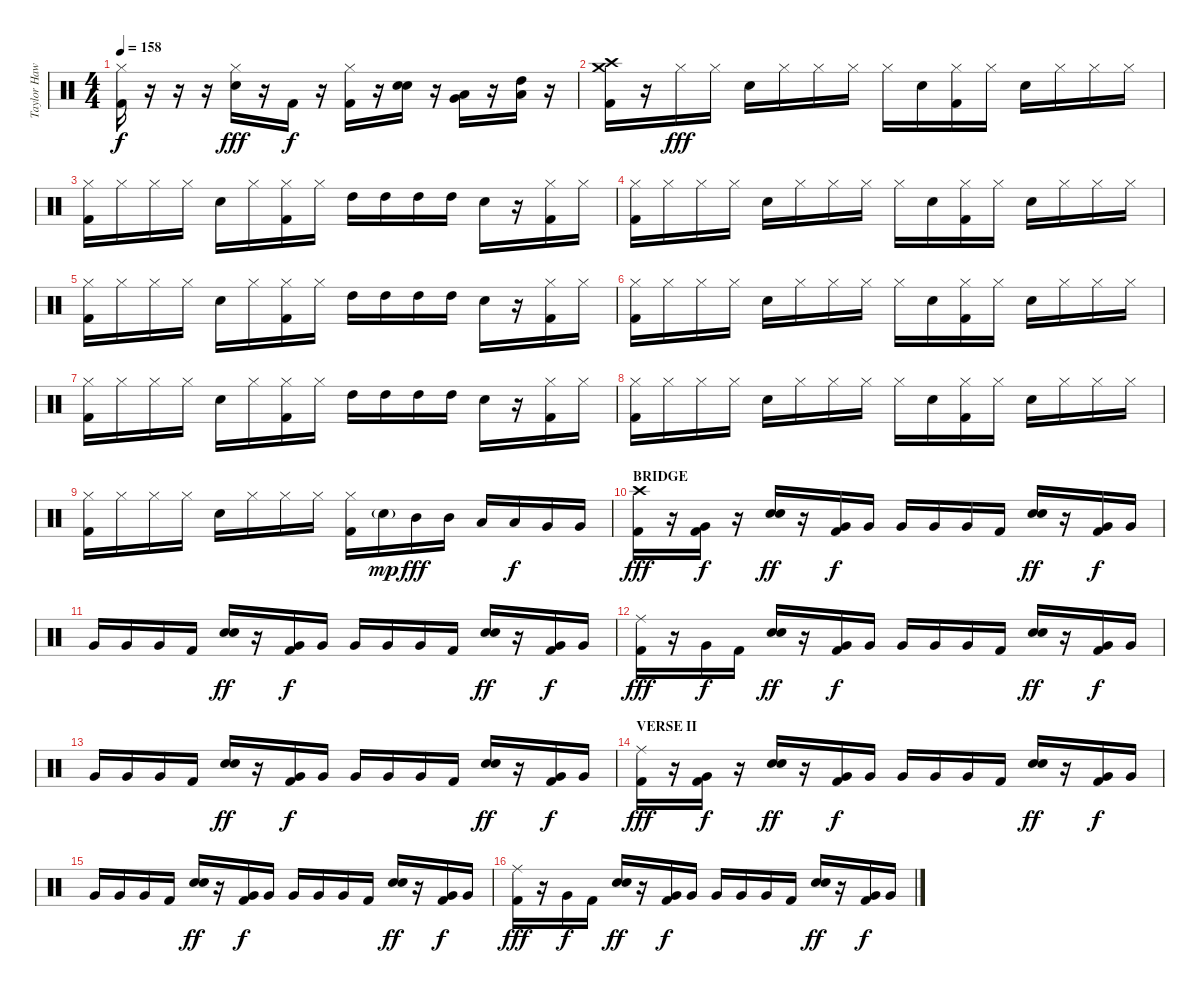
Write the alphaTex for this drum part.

\track ("Taylor Hawkins (Drums)" "Taylor Haw") {instrument percussion}
\staff {score}
\articulation defaults
\ts (4 4)
\tempo 158
\clef neutral
\ks c
("Hi-Hat (closed)" "Kick (hit) 2").16{dy f} r.16 r.16 r.16 ("Hi-Hat (closed)" "Electric Snare (hit)").16{dy fff} r.16 "Kick (hit) 2".16{dy f} r.16 ("Hi-Hat (closed)" "Kick (hit) 2").16 r.16 ("Electric Snare (hit)" "Electric Snare (hit)").16{bu 120} r.16 ("Low Tom (hit)" "Very Low Tom (hit)").16{bu 120} r.16 ("High Tom (hit)" "Low Tom (hit)").16{bu 120} r.16 |
("Crash high (hit)" "Crash medium (hit)" "Kick (hit) 2").16 r.16 "Hi-Hat (closed)".16{dy fff} "Hi-Hat (closed)".16 "Electric Snare (hit)".16 "Hi-Hat (closed)".16 "Hi-Hat (closed)".16 "Hi-Hat (closed)".16 "Hi-Hat (closed)".16 "Electric Snare (hit)".16 ("Hi-Hat (closed)" "Kick (hit) 2").16 "Hi-Hat (closed)".16 "Electric Snare (hit)".16 "Hi-Hat (closed)".16 "Hi-Hat (closed)".16 "Hi-Hat (closed)".16 |
("Hi-Hat (closed)" "Kick (hit) 2").16 "Hi-Hat (closed)".16 "Hi-Hat (closed)".16 "Hi-Hat (closed)".16 "Electric Snare (hit)".16 "Hi-Hat (closed)".16 ("Hi-Hat (closed)" "Kick (hit) 2").16 "Hi-Hat (closed)".16 "High Tom (hit)".16 "High Tom (hit)".16 "High Tom (hit)".16 "High Tom (hit)".16 "Electric Snare (hit)".16 r.16 ("Hi-Hat (closed)" "Kick (hit) 2").16 "Hi-Hat (closed)".16 |
("Hi-Hat (closed)" "Kick (hit) 2").16 "Hi-Hat (closed)".16 "Hi-Hat (closed)".16 "Hi-Hat (closed)".16 "Electric Snare (hit)".16 "Hi-Hat (closed)".16 "Hi-Hat (closed)".16 "Hi-Hat (closed)".16 "Hi-Hat (closed)".16 "Electric Snare (hit)".16 ("Hi-Hat (closed)" "Kick (hit) 2").16 "Hi-Hat (closed)".16 "Electric Snare (hit)".16 "Hi-Hat (closed)".16 "Hi-Hat (closed)".16 "Hi-Hat (closed)".16 |
("Hi-Hat (closed)" "Kick (hit) 2").16 "Hi-Hat (closed)".16 "Hi-Hat (closed)".16 "Hi-Hat (closed)".16 "Electric Snare (hit)".16 "Hi-Hat (closed)".16 ("Hi-Hat (closed)" "Kick (hit) 2").16 "Hi-Hat (closed)".16 "High Tom (hit)".16 "High Tom (hit)".16 "High Tom (hit)".16 "High Tom (hit)".16 "Electric Snare (hit)".16 r.16 ("Hi-Hat (closed)" "Kick (hit) 2").16 "Hi-Hat (closed)".16 |
("Hi-Hat (closed)" "Kick (hit) 2").16 "Hi-Hat (closed)".16 "Hi-Hat (closed)".16 "Hi-Hat (closed)".16 "Electric Snare (hit)".16 "Hi-Hat (closed)".16 "Hi-Hat (closed)".16 "Hi-Hat (closed)".16 "Hi-Hat (closed)".16 "Electric Snare (hit)".16 ("Hi-Hat (closed)" "Kick (hit) 2").16 "Hi-Hat (closed)".16 "Electric Snare (hit)".16 "Hi-Hat (closed)".16 "Hi-Hat (closed)".16 "Hi-Hat (closed)".16 |
("Hi-Hat (closed)" "Kick (hit) 2").16 "Hi-Hat (closed)".16 "Hi-Hat (closed)".16 "Hi-Hat (closed)".16 "Electric Snare (hit)".16 "Hi-Hat (closed)".16 ("Hi-Hat (closed)" "Kick (hit) 2").16 "Hi-Hat (closed)".16 "High Tom (hit)".16 "High Tom (hit)".16 "High Tom (hit)".16 "High Tom (hit)".16 "Electric Snare (hit)".16 r.16 ("Hi-Hat (closed)" "Kick (hit) 2").16 "Hi-Hat (closed)".16 |
("Hi-Hat (closed)" "Kick (hit) 2").16 "Hi-Hat (closed)".16 "Hi-Hat (closed)".16 "Hi-Hat (closed)".16 "Electric Snare (hit)".16 "Hi-Hat (closed)".16 "Hi-Hat (closed)".16 "Hi-Hat (closed)".16 "Hi-Hat (closed)".16 "Electric Snare (hit)".16 ("Hi-Hat (closed)" "Kick (hit) 2").16 "Hi-Hat (closed)".16 "Electric Snare (hit)".16 "Hi-Hat (closed)".16 "Hi-Hat (closed)".16 "Hi-Hat (closed)".16 |
("Hi-Hat (closed)" "Kick (hit) 2").16 "Hi-Hat (closed)".16 "Hi-Hat (closed)".16 "Hi-Hat (closed)".16 "Electric Snare (hit)".16 "Hi-Hat (closed)".16 "Hi-Hat (closed)".16 "Hi-Hat (closed)".16 ("Hi-Hat (closed)" "Kick (hit) 2").16 "Electric Snare (hit)"{g}.16{dy mp} "Mid Tom (hit)".16{dy fff} "Mid Tom (hit)".16 "Low Tom (hit)".16 "Low Tom (hit)".16{dy f} "Very Low Tom (hit)".16 "Very Low Tom (hit)".16 |
\section ("" "BRIDGE")
("Crash high (hit)" "Kick (hit) 2").16{dy fff} r.16 ("Very Low Tom (hit)" "Kick (hit) 2").16{dy f} r.16 ("Electric Snare (hit)" "Electric Snare (hit)").16{bu 120 dy ff} r.16 ("Very Low Tom (hit)" "Kick (hit) 2").16{dy f} "Very Low Tom (hit)".16 "Very Low Tom (hit)".16 "Very Low Tom (hit)".16 "Very Low Tom (hit)".16 "Kick (hit) 2".16 ("Electric Snare (hit)" "Electric Snare (hit)").16{bu 120 dy ff} r.16 ("Very Low Tom (hit)" "Kick (hit) 2").16{dy f} "Very Low Tom (hit)".16 |
"Very Low Tom (hit)".16 "Very Low Tom (hit)".16 "Very Low Tom (hit)".16 "Kick (hit) 2".16 ("Electric Snare (hit)" "Electric Snare (hit)").16{bu 120 dy ff} r.16 ("Very Low Tom (hit)" "Kick (hit) 2").16{dy f} "Very Low Tom (hit)".16 "Very Low Tom (hit)".16 "Very Low Tom (hit)".16 "Very Low Tom (hit)".16 "Kick (hit) 2".16 ("Electric Snare (hit)" "Electric Snare (hit)").16{bu 120 dy ff} r.16 ("Very Low Tom (hit)" "Kick (hit) 2").16{dy f} "Very Low Tom (hit)".16 |
("Ride (middle)" "Kick (hit) 2").16{dy fff} r.16 "Very Low Tom (hit)".16{dy f} "Kick (hit) 2".16 ("Electric Snare (hit)" "Electric Snare (hit)").16{bu 120 dy ff} r.16 ("Very Low Tom (hit)" "Kick (hit) 2").16{dy f} "Very Low Tom (hit)".16 "Very Low Tom (hit)".16 "Very Low Tom (hit)".16 "Very Low Tom (hit)".16 "Kick (hit) 2".16 ("Electric Snare (hit)" "Electric Snare (hit)").16{bu 120 dy ff} r.16 ("Very Low Tom (hit)" "Kick (hit) 2").16{dy f} "Very Low Tom (hit)".16 |
"Very Low Tom (hit)".16 "Very Low Tom (hit)".16 "Very Low Tom (hit)".16 "Kick (hit) 2".16 ("Electric Snare (hit)" "Electric Snare (hit)").16{bu 120 dy ff} r.16 ("Very Low Tom (hit)" "Kick (hit) 2").16{dy f} "Very Low Tom (hit)".16 "Very Low Tom (hit)".16 "Very Low Tom (hit)".16 "Very Low Tom (hit)".16 "Kick (hit) 2".16 ("Electric Snare (hit)" "Electric Snare (hit)").16{bu 120 dy ff} r.16 ("Very Low Tom (hit)" "Kick (hit) 2").16{dy f} "Very Low Tom (hit)".16 |
\section ("" "VERSE II")
("Ride (middle)" "Kick (hit) 2").16{dy fff} r.16 ("Very Low Tom (hit)" "Kick (hit) 2").16{dy f} r.16 ("Electric Snare (hit)" "Electric Snare (hit)").16{bu 120 dy ff} r.16 ("Very Low Tom (hit)" "Kick (hit) 2").16{dy f} "Very Low Tom (hit)".16 "Very Low Tom (hit)".16 "Very Low Tom (hit)".16 "Very Low Tom (hit)".16 "Kick (hit) 2".16 ("Electric Snare (hit)" "Electric Snare (hit)").16{bu 120 dy ff} r.16 ("Very Low Tom (hit)" "Kick (hit) 2").16{dy f} "Very Low Tom (hit)".16 |
"Very Low Tom (hit)".16 "Very Low Tom (hit)".16 "Very Low Tom (hit)".16 "Kick (hit) 2".16 ("Electric Snare (hit)" "Electric Snare (hit)").16{bu 120 dy ff} r.16 ("Very Low Tom (hit)" "Kick (hit) 2").16{dy f} "Very Low Tom (hit)".16 "Very Low Tom (hit)".16 "Very Low Tom (hit)".16 "Very Low Tom (hit)".16 "Kick (hit) 2".16 ("Electric Snare (hit)" "Electric Snare (hit)").16{bu 120 dy ff} r.16 ("Very Low Tom (hit)" "Kick (hit) 2").16{dy f} "Very Low Tom (hit)".16 |
("Ride (middle)" "Kick (hit) 2").16{dy fff} r.16 "Very Low Tom (hit)".16{dy f} "Kick (hit) 2".16 ("Electric Snare (hit)" "Electric Snare (hit)").16{bu 120 dy ff} r.16 ("Very Low Tom (hit)" "Kick (hit) 2").16{dy f} "Very Low Tom (hit)".16 "Very Low Tom (hit)".16 "Very Low Tom (hit)".16 "Very Low Tom (hit)".16 "Kick (hit) 2".16 ("Electric Snare (hit)" "Electric Snare (hit)").16{bu 120 dy ff} r.16 ("Very Low Tom (hit)" "Kick (hit) 2").16{dy f} "Very Low Tom (hit)".16
